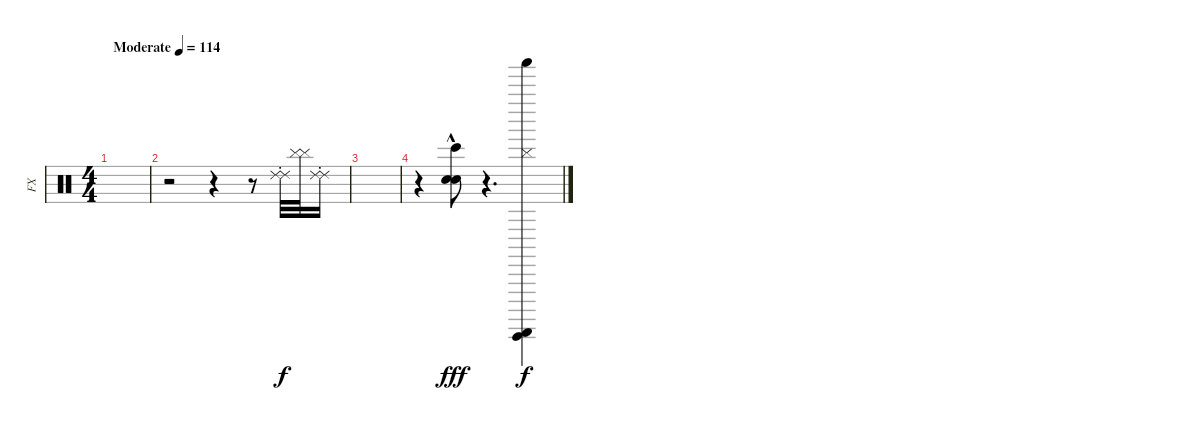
\track ("FX" "FX") {instrument percussion}
\staff {score}
\articulation defaults
\ts (4 4)
\tempo (114 "Moderate")
\clef neutral
\ks c
|
r.2 r.4 r.8 ("Ride (choke) 2" "Ride (choke) 2").32 ("Cymbal (hit)" "Cymbal (hit)").32 ("Ride (choke) 2" "Ride (choke) 2").16 |
|
r.4 ("Bongo High (hit)" "Hand Clap (hit)" "Hand Clap (hit)"{hac}).8{dy fff} r.4{d} ("Guiro (hit)" "Guiro (scrap-return)" "Shaker (hit)" "Cymbal (hit)").4{dy f}
